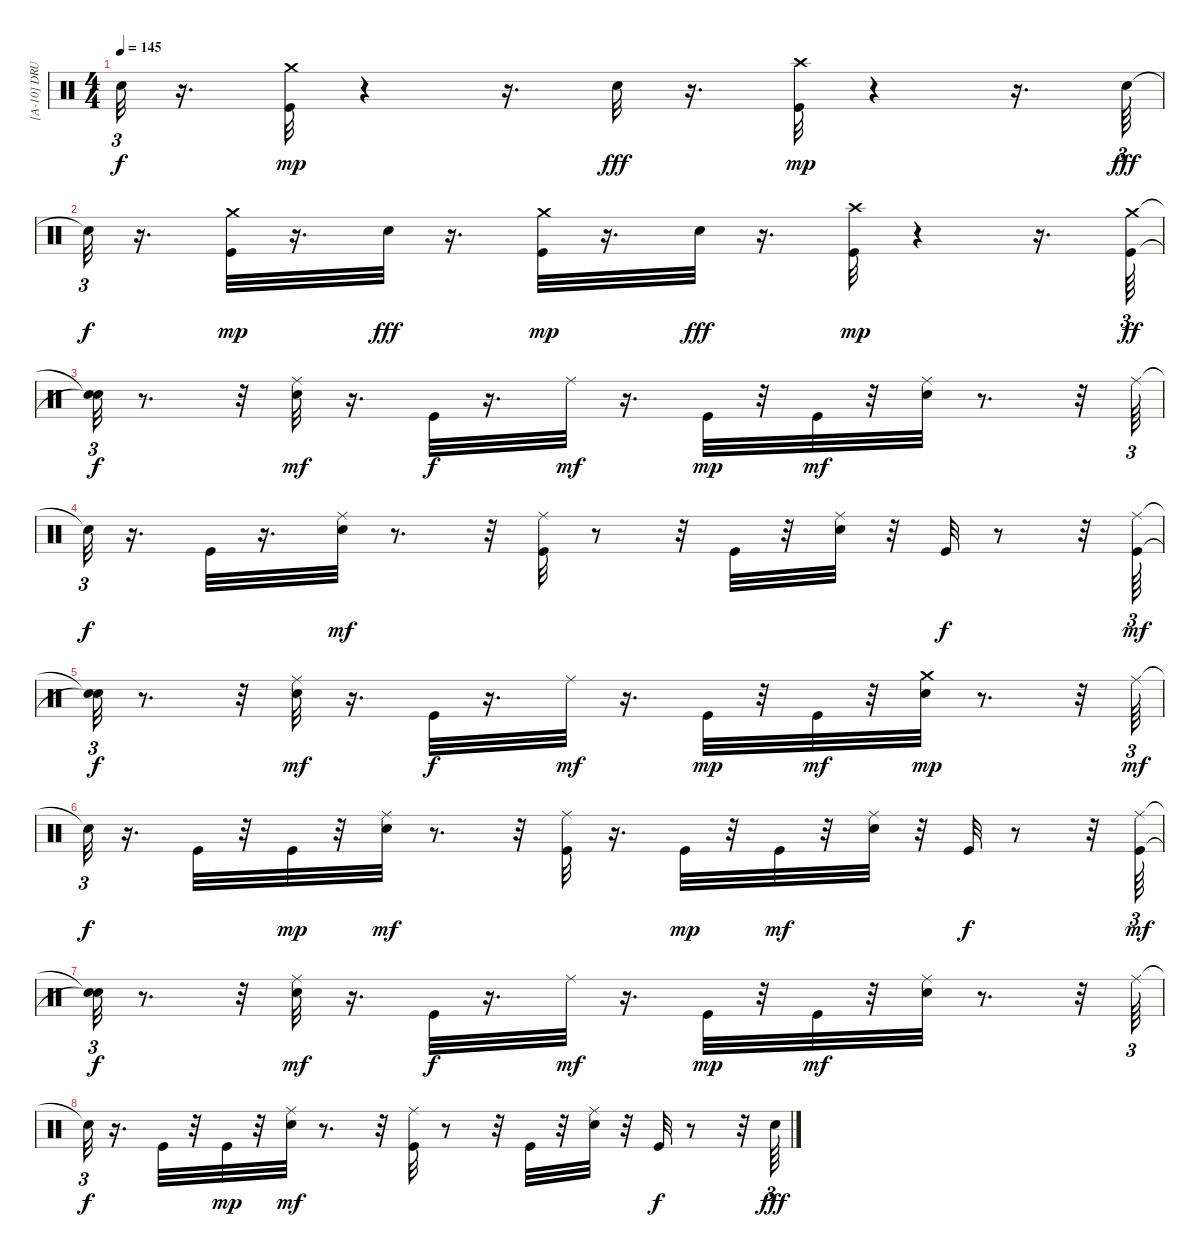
\track ("[A-10] DRUMS" "[A-10] DRU") {instrument percussion}
\staff {score}
\articulation defaults
\ts (4 4)
\tempo 145
\clef neutral
\ks c "Snare (hit)"{t}.32{tu (3 2) dy f}
r.16{d} ("Kick (hit)" "Crash medium (hit)").32{dy mp} r.4 r.16{d} "Snare (hit) 2".32{dy fff} r.16{d} ("Kick (hit)" "Crash high (hit)").32{dy mp} r.4 r.16{d} "Snare (hit) 2".64{tu (3 2) dy fff} |
"Snare (hit)"{t}.32{tu (3 2) dy f} r.16{d} ("Kick (hit)" "Crash medium (hit)").32{dy mp} r.16{d} "Snare (hit) 2".32{dy fff} r.16{d} ("Kick (hit)" "Crash medium (hit)").32{dy mp} r.16{d} "Snare (hit) 2".32{dy fff} r.16{d} ("Kick (hit)" "Crash high (hit)").32{dy mp} r.4 r.16{d} ("Crash medium (hit)" "Kick (hit)").64{tu (3 2) dy ff} |
("Snare (hit)"{t} "Snare (hit)"{t}).32{tu (3 2) dy f} r.8{d} r.32 ("Snare (hit) 2" "Ride (middle)").32{dy mf} r.16{d} "Kick (hit)".32{dy f} r.16{d} "Ride (middle)".32{dy mf} r.16{d} "Kick (hit)".32{dy mp} r.32 "Kick (hit)".32{dy mf} r.32 ("Snare (hit) 2" "Ride (middle)").32 r.8{d} r.32 "Ride (middle)".64{tu (3 2)} |
"Snare (hit)"{t}.32{tu (3 2) dy f} r.16{d} "Kick (hit)".32 r.16{d} ("Snare (hit) 2" "Ride (middle)").32{dy mf} r.8{d} r.32 ("Kick (hit)" "Ride (middle)").32 r.8 r.32 "Kick (hit)".32 r.32 ("Snare (hit) 2" "Ride (middle)").32 r.32 "Kick (hit)".32{dy f} r.8 r.32 ("Kick (hit)" "Ride (middle)").64{tu (3 2) dy mf} |
("Snare (hit)"{t} "Snare (hit)"{t}).32{tu (3 2) dy f} r.8{d} r.32 ("Snare (hit) 2" "Ride (middle)").32{dy mf} r.16{d} "Kick (hit)".32{dy f} r.16{d} "Ride (middle)".32{dy mf} r.16{d} "Kick (hit)".32{dy mp} r.32 "Kick (hit)".32{dy mf} r.32 ("Snare (hit) 2" "Crash medium (hit)").32{dy mp} r.8{d} r.32 "Ride (middle)".64{tu (3 2) dy mf} |
"Snare (hit)"{t}.32{tu (3 2) dy f} r.16{d} "Kick (hit)".32 r.32 "Kick (hit)".32{dy mp} r.32 ("Snare (hit) 2" "Ride (middle)").32{dy mf} r.8{d} r.32 ("Kick (hit)" "Ride (middle)").32 r.16{d} "Kick (hit)".32{dy mp} r.32 "Kick (hit)".32{dy mf} r.32 ("Snare (hit) 2" "Ride (middle)").32 r.32 "Kick (hit)".32{dy f} r.8 r.32 ("Kick (hit)" "Ride (middle)").64{tu (3 2) dy mf} |
("Snare (hit)"{t} "Snare (hit)"{t}).32{tu (3 2) dy f} r.8{d} r.32 ("Snare (hit) 2" "Ride (middle)").32{dy mf} r.16{d} "Kick (hit)".32{dy f} r.16{d} "Ride (middle)".32{dy mf} r.16{d} "Kick (hit)".32{dy mp} r.32 "Kick (hit)".32{dy mf} r.32 ("Snare (hit) 2" "Ride (middle)").32 r.8{d} r.32 "Ride (middle)".64{tu (3 2)} |
"Snare (hit)"{t}.32{tu (3 2) dy f} r.16{d} "Kick (hit)".32 r.32 "Kick (hit)".32{dy mp} r.32 ("Snare (hit) 2" "Ride (middle)").32{dy mf} r.8{d} r.32 ("Kick (hit)" "Ride (middle)").32 r.8 r.32 "Kick (hit)".32 r.32 ("Snare (hit) 2" "Ride (middle)").32 r.32 "Kick (hit)".32{dy f} r.8 r.32 "Snare (hit) 2".64{tu (3 2) dy fff}
